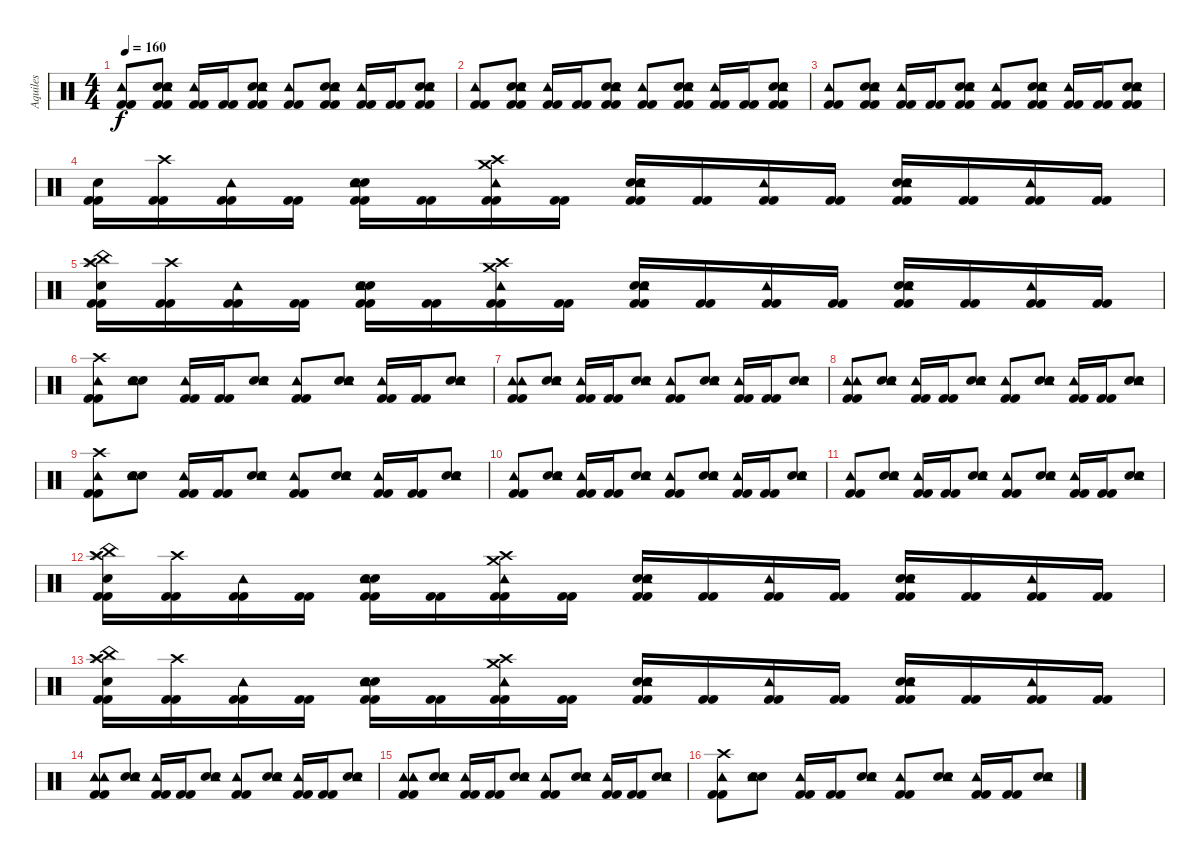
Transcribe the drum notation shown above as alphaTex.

\track ("Aquiles" "Aquiles") {instrument percussion}
\staff {score}
\articulation defaults
\ts (4 4)
\tempo 160
\clef neutral
\ks c
("Kick (hit) 2" "Kick (hit) 2" "Tambourine (hit)").8{dy f} ("Kick (hit) 2" "Electric Snare (hit)" "Electric Snare (hit)" "Tambourine (hit)" "Kick (hit) 2").8 ("Kick (hit) 2" "Kick (hit) 2" "Tambourine (hit)").16 ("Kick (hit) 2" "Kick (hit) 2").16 ("Kick (hit) 2" "Electric Snare (hit)" "Electric Snare (hit)" "Tambourine (hit)" "Kick (hit) 2").8 ("Kick (hit) 2" "Kick (hit) 2" "Tambourine (hit)").8 ("Kick (hit) 2" "Electric Snare (hit)" "Electric Snare (hit)" "Tambourine (hit)" "Kick (hit) 2").8 ("Kick (hit) 2" "Kick (hit) 2" "Tambourine (hit)").16 ("Kick (hit) 2" "Kick (hit) 2").16 ("Kick (hit) 2" "Electric Snare (hit)" "Electric Snare (hit)" "Tambourine (hit)" "Kick (hit) 2").8 |
("Kick (hit) 2" "Kick (hit) 2" "Tambourine (hit)").8 ("Kick (hit) 2" "Electric Snare (hit)" "Electric Snare (hit)" "Tambourine (hit)" "Kick (hit) 2").8 ("Kick (hit) 2" "Kick (hit) 2" "Tambourine (hit)").16 ("Kick (hit) 2" "Kick (hit) 2").16 ("Kick (hit) 2" "Electric Snare (hit)" "Electric Snare (hit)" "Tambourine (hit)" "Kick (hit) 2").8 ("Kick (hit) 2" "Kick (hit) 2" "Tambourine (hit)").8 ("Kick (hit) 2" "Electric Snare (hit)" "Electric Snare (hit)" "Tambourine (hit)" "Kick (hit) 2").8 ("Kick (hit) 2" "Kick (hit) 2" "Tambourine (hit)").16 ("Kick (hit) 2" "Kick (hit) 2").16 ("Kick (hit) 2" "Electric Snare (hit)" "Electric Snare (hit)" "Tambourine (hit)" "Kick (hit) 2").8 |
("Kick (hit) 2" "Kick (hit) 2" "Tambourine (hit)").8 ("Kick (hit) 2" "Electric Snare (hit)" "Electric Snare (hit)" "Tambourine (hit)" "Kick (hit) 2").8 ("Kick (hit) 2" "Kick (hit) 2" "Tambourine (hit)").16 ("Kick (hit) 2" "Kick (hit) 2").16 ("Kick (hit) 2" "Electric Snare (hit)" "Electric Snare (hit)" "Tambourine (hit)" "Kick (hit) 2").8 ("Kick (hit) 2" "Kick (hit) 2" "Tambourine (hit)").8 ("Kick (hit) 2" "Electric Snare (hit)" "Electric Snare (hit)" "Tambourine (hit)" "Kick (hit) 2").8 ("Kick (hit) 2" "Kick (hit) 2" "Tambourine (hit)").16 ("Kick (hit) 2" "Kick (hit) 2").16 ("Kick (hit) 2" "Electric Snare (hit)" "Electric Snare (hit)" "Tambourine (hit)" "Kick (hit) 2").8 |
("Kick (hit) 2" "Kick (hit) 2" "Electric Snare (hit)").16 ("Kick (hit) 2" "Kick (hit) 2" "Crash high (hit)").16 ("Kick (hit) 2" "Kick (hit) 2" "Tambourine (hit)").16 ("Kick (hit) 2" "Kick (hit) 2").16 ("Kick (hit) 2" "Kick (hit) 2" "Electric Snare (hit)" "Electric Snare (hit)" "Tambourine (hit)").16 ("Kick (hit) 2" "Kick (hit) 2").16 ("Kick (hit) 2" "Kick (hit) 2" "Crash high (hit)" "Tambourine (hit)" "Crash medium (hit)").16 ("Kick (hit) 2" "Kick (hit) 2").16 ("Kick (hit) 2" "Kick (hit) 2" "Electric Snare (hit)" "Electric Snare (hit)" "Tambourine (hit)").16 ("Kick (hit) 2" "Kick (hit) 2").16 ("Kick (hit) 2" "Kick (hit) 2" "Tambourine (hit)").16 ("Kick (hit) 2" "Kick (hit) 2").16 ("Kick (hit) 2" "Kick (hit) 2" "Electric Snare (hit)" "Electric Snare (hit)" "Tambourine (hit)").16 ("Kick (hit) 2" "Kick (hit) 2").16 ("Kick (hit) 2" "Kick (hit) 2" "Tambourine (hit)").16 ("Kick (hit) 2" "Kick (hit) 2").16 |
("Kick (hit) 2" "Kick (hit) 2" "Electric Snare (hit)" "Crash high (hit)" "Splash (hit)" "China (hit)").16 ("Kick (hit) 2" "Kick (hit) 2" "Crash high (hit)").16 ("Kick (hit) 2" "Kick (hit) 2" "Tambourine (hit)").16 ("Kick (hit) 2" "Kick (hit) 2").16 ("Kick (hit) 2" "Kick (hit) 2" "Electric Snare (hit)" "Electric Snare (hit)" "Tambourine (hit)").16 ("Kick (hit) 2" "Kick (hit) 2").16 ("Kick (hit) 2" "Kick (hit) 2" "Crash high (hit)" "Tambourine (hit)" "Crash medium (hit)").16 ("Kick (hit) 2" "Kick (hit) 2").16 ("Kick (hit) 2" "Kick (hit) 2" "Electric Snare (hit)" "Electric Snare (hit)" "Tambourine (hit)").16 ("Kick (hit) 2" "Kick (hit) 2").16 ("Kick (hit) 2" "Kick (hit) 2" "Tambourine (hit)").16 ("Kick (hit) 2" "Kick (hit) 2").16 ("Kick (hit) 2" "Kick (hit) 2" "Electric Snare (hit)" "Electric Snare (hit)" "Tambourine (hit)").16 ("Kick (hit) 2" "Kick (hit) 2").16 ("Kick (hit) 2" "Kick (hit) 2" "Tambourine (hit)").16 ("Kick (hit) 2" "Kick (hit) 2").16 |
("Kick (hit) 2" "Kick (hit) 2" "Tambourine (hit)" "Crash high (hit)").8 ("Electric Snare (hit)" "Electric Snare (hit)" "Tambourine (hit)").8 ("Kick (hit) 2" "Kick (hit) 2" "Tambourine (hit)").16 ("Kick (hit) 2" "Kick (hit) 2").16 ("Electric Snare (hit)" "Electric Snare (hit)" "Tambourine (hit)").8 ("Kick (hit) 2" "Kick (hit) 2" "Tambourine (hit)").8 ("Electric Snare (hit)" "Electric Snare (hit)" "Tambourine (hit)").8 ("Kick (hit) 2" "Kick (hit) 2" "Tambourine (hit)").16 ("Kick (hit) 2" "Kick (hit) 2").16 ("Electric Snare (hit)" "Electric Snare (hit)" "Tambourine (hit)").8 |
("Kick (hit) 2" "Kick (hit) 2" "Tambourine (hit)" "Tambourine (hit)").8 ("Electric Snare (hit)" "Electric Snare (hit)" "Tambourine (hit)").8 ("Kick (hit) 2" "Kick (hit) 2" "Tambourine (hit)").16 ("Kick (hit) 2" "Kick (hit) 2").16 ("Electric Snare (hit)" "Electric Snare (hit)" "Tambourine (hit)").8 ("Kick (hit) 2" "Kick (hit) 2" "Tambourine (hit)").8 ("Electric Snare (hit)" "Electric Snare (hit)" "Tambourine (hit)").8 ("Kick (hit) 2" "Kick (hit) 2" "Tambourine (hit)").16 ("Kick (hit) 2" "Kick (hit) 2").16 ("Electric Snare (hit)" "Electric Snare (hit)" "Tambourine (hit)").8 |
("Kick (hit) 2" "Kick (hit) 2" "Tambourine (hit)" "Tambourine (hit)").8 ("Electric Snare (hit)" "Electric Snare (hit)" "Tambourine (hit)").8 ("Kick (hit) 2" "Kick (hit) 2" "Tambourine (hit)").16 ("Kick (hit) 2" "Kick (hit) 2").16 ("Electric Snare (hit)" "Electric Snare (hit)" "Tambourine (hit)").8 ("Kick (hit) 2" "Kick (hit) 2" "Tambourine (hit)").8 ("Electric Snare (hit)" "Electric Snare (hit)" "Tambourine (hit)").8 ("Kick (hit) 2" "Kick (hit) 2" "Tambourine (hit)").16 ("Kick (hit) 2" "Kick (hit) 2").16 ("Electric Snare (hit)" "Electric Snare (hit)" "Tambourine (hit)").8 |
("Kick (hit) 2" "Kick (hit) 2" "Tambourine (hit)" "Crash high (hit)").8 ("Electric Snare (hit)" "Electric Snare (hit)" "Tambourine (hit)").8 ("Kick (hit) 2" "Kick (hit) 2" "Tambourine (hit)").16 ("Kick (hit) 2" "Kick (hit) 2").16 ("Electric Snare (hit)" "Electric Snare (hit)" "Tambourine (hit)").8 ("Kick (hit) 2" "Kick (hit) 2" "Tambourine (hit)").8 ("Electric Snare (hit)" "Electric Snare (hit)" "Tambourine (hit)").8 ("Kick (hit) 2" "Kick (hit) 2" "Tambourine (hit)").16 ("Kick (hit) 2" "Kick (hit) 2").16 ("Electric Snare (hit)" "Electric Snare (hit)" "Tambourine (hit)").8 |
("Kick (hit) 2" "Kick (hit) 2" "Tambourine (hit)").8 ("Electric Snare (hit)" "Electric Snare (hit)" "Tambourine (hit)").8 ("Kick (hit) 2" "Kick (hit) 2" "Tambourine (hit)").16 ("Kick (hit) 2" "Kick (hit) 2").16 ("Electric Snare (hit)" "Electric Snare (hit)" "Tambourine (hit)").8 ("Kick (hit) 2" "Kick (hit) 2" "Tambourine (hit)").8 ("Electric Snare (hit)" "Electric Snare (hit)" "Tambourine (hit)").8 ("Kick (hit) 2" "Kick (hit) 2" "Tambourine (hit)").16 ("Kick (hit) 2" "Kick (hit) 2").16 ("Electric Snare (hit)" "Electric Snare (hit)" "Tambourine (hit)").8 |
("Kick (hit) 2" "Kick (hit) 2" "Tambourine (hit)").8 ("Electric Snare (hit)" "Electric Snare (hit)" "Tambourine (hit)").8 ("Kick (hit) 2" "Kick (hit) 2" "Tambourine (hit)").16 ("Kick (hit) 2" "Kick (hit) 2").16 ("Electric Snare (hit)" "Electric Snare (hit)" "Tambourine (hit)").8 ("Kick (hit) 2" "Kick (hit) 2" "Tambourine (hit)").8 ("Electric Snare (hit)" "Electric Snare (hit)" "Tambourine (hit)").8 ("Kick (hit) 2" "Kick (hit) 2" "Tambourine (hit)").16 ("Kick (hit) 2" "Kick (hit) 2").16 ("Electric Snare (hit)" "Electric Snare (hit)" "Tambourine (hit)").8 |
("Kick (hit) 2" "Kick (hit) 2" "Electric Snare (hit)" "Crash high (hit)" "Splash (hit)" "China (hit)").16 ("Kick (hit) 2" "Kick (hit) 2" "Crash high (hit)").16 ("Kick (hit) 2" "Kick (hit) 2" "Tambourine (hit)").16 ("Kick (hit) 2" "Kick (hit) 2").16 ("Kick (hit) 2" "Kick (hit) 2" "Electric Snare (hit)" "Electric Snare (hit)" "Tambourine (hit)").16 ("Kick (hit) 2" "Kick (hit) 2").16 ("Kick (hit) 2" "Kick (hit) 2" "Crash high (hit)" "Tambourine (hit)" "Crash medium (hit)").16 ("Kick (hit) 2" "Kick (hit) 2").16 ("Kick (hit) 2" "Kick (hit) 2" "Electric Snare (hit)" "Electric Snare (hit)" "Tambourine (hit)").16 ("Kick (hit) 2" "Kick (hit) 2").16 ("Kick (hit) 2" "Kick (hit) 2" "Tambourine (hit)").16 ("Kick (hit) 2" "Kick (hit) 2").16 ("Kick (hit) 2" "Kick (hit) 2" "Electric Snare (hit)" "Electric Snare (hit)" "Tambourine (hit)").16 ("Kick (hit) 2" "Kick (hit) 2").16 ("Kick (hit) 2" "Kick (hit) 2" "Tambourine (hit)").16 ("Kick (hit) 2" "Kick (hit) 2").16 |
("Kick (hit) 2" "Kick (hit) 2" "Electric Snare (hit)" "Crash high (hit)" "Splash (hit)" "China (hit)").16 ("Kick (hit) 2" "Kick (hit) 2" "Crash high (hit)").16 ("Kick (hit) 2" "Kick (hit) 2" "Tambourine (hit)").16 ("Kick (hit) 2" "Kick (hit) 2").16 ("Kick (hit) 2" "Kick (hit) 2" "Electric Snare (hit)" "Electric Snare (hit)" "Tambourine (hit)").16 ("Kick (hit) 2" "Kick (hit) 2").16 ("Kick (hit) 2" "Kick (hit) 2" "Crash high (hit)" "Tambourine (hit)" "Crash medium (hit)").16 ("Kick (hit) 2" "Kick (hit) 2").16 ("Kick (hit) 2" "Kick (hit) 2" "Electric Snare (hit)" "Electric Snare (hit)" "Tambourine (hit)").16 ("Kick (hit) 2" "Kick (hit) 2").16 ("Kick (hit) 2" "Kick (hit) 2" "Tambourine (hit)").16 ("Kick (hit) 2" "Kick (hit) 2").16 ("Kick (hit) 2" "Kick (hit) 2" "Electric Snare (hit)" "Electric Snare (hit)" "Tambourine (hit)").16 ("Kick (hit) 2" "Kick (hit) 2").16 ("Kick (hit) 2" "Kick (hit) 2" "Tambourine (hit)").16 ("Kick (hit) 2" "Kick (hit) 2").16 |
("Kick (hit) 2" "Kick (hit) 2" "Tambourine (hit)" "Tambourine (hit)").8 ("Electric Snare (hit)" "Electric Snare (hit)" "Tambourine (hit)").8 ("Kick (hit) 2" "Kick (hit) 2" "Tambourine (hit)").16 ("Kick (hit) 2" "Kick (hit) 2").16 ("Electric Snare (hit)" "Electric Snare (hit)" "Tambourine (hit)").8 ("Kick (hit) 2" "Kick (hit) 2" "Tambourine (hit)").8 ("Electric Snare (hit)" "Electric Snare (hit)" "Tambourine (hit)").8 ("Kick (hit) 2" "Kick (hit) 2" "Tambourine (hit)").16 ("Kick (hit) 2" "Kick (hit) 2").16 ("Electric Snare (hit)" "Electric Snare (hit)" "Tambourine (hit)").8 |
("Kick (hit) 2" "Kick (hit) 2" "Tambourine (hit)" "Tambourine (hit)").8 ("Electric Snare (hit)" "Electric Snare (hit)" "Tambourine (hit)").8 ("Kick (hit) 2" "Kick (hit) 2" "Tambourine (hit)").16 ("Kick (hit) 2" "Kick (hit) 2").16 ("Electric Snare (hit)" "Electric Snare (hit)" "Tambourine (hit)").8 ("Kick (hit) 2" "Kick (hit) 2" "Tambourine (hit)").8 ("Electric Snare (hit)" "Electric Snare (hit)" "Tambourine (hit)").8 ("Kick (hit) 2" "Kick (hit) 2" "Tambourine (hit)").16 ("Kick (hit) 2" "Kick (hit) 2").16 ("Electric Snare (hit)" "Electric Snare (hit)" "Tambourine (hit)").8 |
("Kick (hit) 2" "Kick (hit) 2" "Tambourine (hit)" "Crash high (hit)").8 ("Electric Snare (hit)" "Electric Snare (hit)" "Tambourine (hit)").8 ("Kick (hit) 2" "Kick (hit) 2" "Tambourine (hit)").16 ("Kick (hit) 2" "Kick (hit) 2").16 ("Electric Snare (hit)" "Electric Snare (hit)" "Tambourine (hit)").8 ("Kick (hit) 2" "Kick (hit) 2" "Tambourine (hit)").8 ("Electric Snare (hit)" "Electric Snare (hit)" "Tambourine (hit)").8 ("Kick (hit) 2" "Kick (hit) 2" "Tambourine (hit)").16 ("Kick (hit) 2" "Kick (hit) 2").16 ("Electric Snare (hit)" "Electric Snare (hit)" "Tambourine (hit)").8
